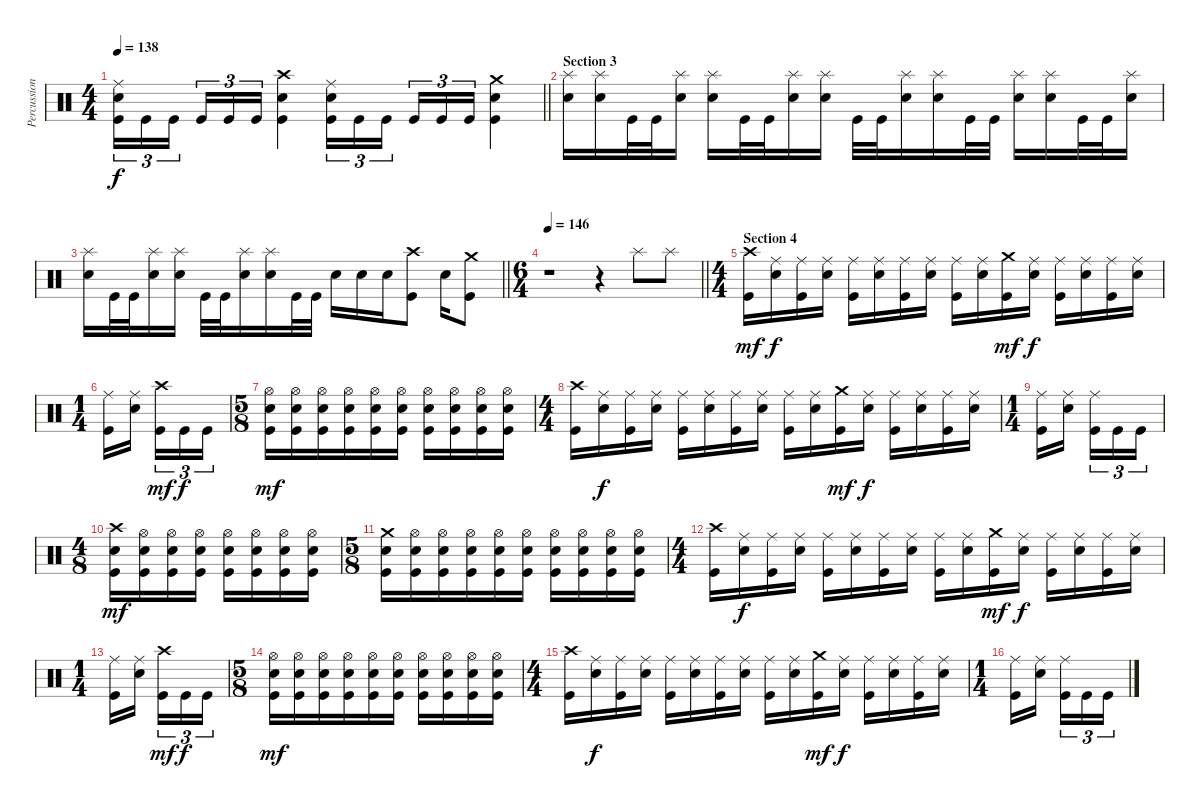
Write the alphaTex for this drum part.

\track ("Percussion" "Percussion") {instrument percussion}
\staff {score}
\articulation defaults
\ts (4 4)
\tempo 138
\clef neutral
\barLineRight lightlight
\ks c
("Ride (middle)" "Electric Snare (hit)" "Kick (hit)").16{tu (3 2) dy f} "Kick (hit)".16{tu (3 2)} "Kick (hit)".16{tu (3 2) beam splitsecondary} "Kick (hit)".16{tu (3 2)} "Kick (hit)".16{tu (3 2)} "Kick (hit)".16{tu (3 2)} ("Crash high (hit)" "Electric Snare (hit)" "Kick (hit)").4 ("Ride (middle)" "Electric Snare (hit)" "Kick (hit)").16{tu (3 2)} "Kick (hit)".16{tu (3 2)} "Kick (hit)".16{tu (3 2) beam splitsecondary} "Kick (hit)".16{tu (3 2)} "Kick (hit)".16{tu (3 2)} "Kick (hit)".16{tu (3 2)} ("Crash medium (hit)" "Electric Snare (hit)" "Kick (hit)").4 |
\section ("" "Section 3")
("Splash (hit)" "Electric Snare (hit)").16 ("Splash (hit)" "Electric Snare (hit)").16 "Kick (hit)".32 "Kick (hit)".32 ("Splash (hit)" "Electric Snare (hit)").16 ("Splash (hit)" "Electric Snare (hit)").16 "Kick (hit)".32 "Kick (hit)".32 ("Splash (hit)" "Electric Snare (hit)").16 ("Splash (hit)" "Electric Snare (hit)").16 "Kick (hit)".32 "Kick (hit)".32 ("Splash (hit)" "Electric Snare (hit)").16 ("Splash (hit)" "Electric Snare (hit)").16 "Kick (hit)".32 "Kick (hit)".32 ("Splash (hit)" "Electric Snare (hit)").16 ("Splash (hit)" "Electric Snare (hit)").16 "Kick (hit)".32 "Kick (hit)".32 ("Splash (hit)" "Electric Snare (hit)").16 |
\barLineRight lightlight
("Splash (hit)" "Electric Snare (hit)").16 "Kick (hit)".32 "Kick (hit)".32 ("Splash (hit)" "Electric Snare (hit)").16 ("Splash (hit)" "Electric Snare (hit)").16 "Kick (hit)".32 "Kick (hit)".32 ("Splash (hit)" "Electric Snare (hit)").16 ("Splash (hit)" "Electric Snare (hit)").16 "Kick (hit)".32 "Kick (hit)".32 "Electric Snare (hit)".16 "Electric Snare (hit)".16 "Electric Snare (hit)".16 ("Crash high (hit)" "Kick (hit)").8 "Electric Snare (hit)".16 ("Crash medium (hit)" "Kick (hit)").8 |
\ts (6 4)
\tempo 146
\barLineRight lightlight
r.1 r.4 "Splash (hit)".8 "Splash (hit)".8 |
\ts (4 4)
\section ("" "Section 4")
("Crash high (hit)" "Kick (hit)").16{dy mf} ("Ride (middle)" "Electric Snare (hit)").16{dy f} ("Ride (middle)" "Kick (hit)").16 ("Ride (middle)" "Electric Snare (hit)").16 ("Ride (middle)" "Kick (hit)").16 ("Ride (middle)" "Electric Snare (hit)").16 ("Ride (middle)" "Kick (hit)").16 ("Ride (middle)" "Electric Snare (hit)").16 ("Ride (middle)" "Kick (hit)").16 ("Ride (middle)" "Electric Snare (hit)").16 ("Crash medium (hit)" "Kick (hit)").16{dy mf} ("Ride (middle)" "Electric Snare (hit)").16{dy f} ("Ride (middle)" "Kick (hit)").16 ("Ride (middle)" "Electric Snare (hit)").16 ("Ride (middle)" "Kick (hit)").16 ("Ride (middle)" "Electric Snare (hit)").16 |
\ts (1 4)
("Ride (middle)" "Kick (hit)").16 ("Ride (middle)" "Electric Snare (hit)").16{beam splitsecondary} ("Crash high (hit)" "Kick (hit)").16{tu (3 2) dy mf} "Kick (hit)".16{tu (3 2) dy f} "Kick (hit)".16{tu (3 2)} |
\ts (5 8)
("Hi-Hat (open)" "Electric Snare (hit)" "Kick (hit)").16{dy mf} ("Hi-Hat (open)" "Electric Snare (hit)" "Kick (hit)").16 ("Hi-Hat (open)" "Electric Snare (hit)" "Kick (hit)").16 ("Hi-Hat (open)" "Electric Snare (hit)" "Kick (hit)").16 ("Hi-Hat (open)" "Electric Snare (hit)" "Kick (hit)").16 ("Hi-Hat (open)" "Electric Snare (hit)" "Kick (hit)").16 ("Hi-Hat (open)" "Electric Snare (hit)" "Kick (hit)").16 ("Hi-Hat (open)" "Electric Snare (hit)" "Kick (hit)").16 ("Hi-Hat (open)" "Electric Snare (hit)" "Kick (hit)").16 ("Hi-Hat (open)" "Electric Snare (hit)" "Kick (hit)").16 |
\ts (4 4)
("Crash high (hit)" "Kick (hit)").16 ("Ride (middle)" "Electric Snare (hit)").16{dy f} ("Ride (middle)" "Kick (hit)").16 ("Ride (middle)" "Electric Snare (hit)").16 ("Ride (middle)" "Kick (hit)").16 ("Ride (middle)" "Electric Snare (hit)").16 ("Ride (middle)" "Kick (hit)").16 ("Ride (middle)" "Electric Snare (hit)").16 ("Ride (middle)" "Kick (hit)").16 ("Ride (middle)" "Electric Snare (hit)").16 ("Crash medium (hit)" "Kick (hit)").16{dy mf} ("Ride (middle)" "Electric Snare (hit)").16{dy f} ("Ride (middle)" "Kick (hit)").16 ("Ride (middle)" "Electric Snare (hit)").16 ("Ride (middle)" "Kick (hit)").16 ("Ride (middle)" "Electric Snare (hit)").16 |
\ts (1 4)
("Ride (middle)" "Kick (hit)").16 ("Ride (middle)" "Electric Snare (hit)").16{beam splitsecondary} ("Ride (middle)" "Kick (hit)").16{tu (3 2)} "Kick (hit)".16{tu (3 2)} "Kick (hit)".16{tu (3 2)} |
\ts (4 8)
("Crash high (hit)" "Electric Snare (hit)" "Kick (hit)").16{dy mf} ("Hi-Hat (open)" "Electric Snare (hit)" "Kick (hit)").16 ("Hi-Hat (open)" "Electric Snare (hit)" "Kick (hit)").16 ("Hi-Hat (open)" "Electric Snare (hit)" "Kick (hit)").16 ("Hi-Hat (open)" "Electric Snare (hit)" "Kick (hit)").16 ("Hi-Hat (open)" "Electric Snare (hit)" "Kick (hit)").16 ("Hi-Hat (open)" "Electric Snare (hit)" "Kick (hit)").16 ("Hi-Hat (open)" "Electric Snare (hit)" "Kick (hit)").16 |
\ts (5 8)
("Crash medium (hit)" "Electric Snare (hit)" "Kick (hit)").16 ("Hi-Hat (open)" "Electric Snare (hit)" "Kick (hit)").16 ("Hi-Hat (open)" "Electric Snare (hit)" "Kick (hit)").16 ("Hi-Hat (open)" "Electric Snare (hit)" "Kick (hit)").16 ("Hi-Hat (open)" "Electric Snare (hit)" "Kick (hit)").16 ("Hi-Hat (open)" "Electric Snare (hit)" "Kick (hit)").16 ("Hi-Hat (open)" "Electric Snare (hit)" "Kick (hit)").16 ("Hi-Hat (open)" "Electric Snare (hit)" "Kick (hit)").16 ("Hi-Hat (open)" "Electric Snare (hit)" "Kick (hit)").16 ("Hi-Hat (open)" "Electric Snare (hit)" "Kick (hit)").16 |
\ts (4 4)
("Crash high (hit)" "Kick (hit)").16 ("Ride (middle)" "Electric Snare (hit)").16{dy f} ("Ride (middle)" "Kick (hit)").16 ("Ride (middle)" "Electric Snare (hit)").16 ("Ride (middle)" "Kick (hit)").16 ("Ride (middle)" "Electric Snare (hit)").16 ("Ride (middle)" "Kick (hit)").16 ("Ride (middle)" "Electric Snare (hit)").16 ("Ride (middle)" "Kick (hit)").16 ("Ride (middle)" "Electric Snare (hit)").16 ("Crash medium (hit)" "Kick (hit)").16{dy mf} ("Ride (middle)" "Electric Snare (hit)").16{dy f} ("Ride (middle)" "Kick (hit)").16 ("Ride (middle)" "Electric Snare (hit)").16 ("Ride (middle)" "Kick (hit)").16 ("Ride (middle)" "Electric Snare (hit)").16 |
\ts (1 4)
("Ride (middle)" "Kick (hit)").16 ("Ride (middle)" "Electric Snare (hit)").16{beam splitsecondary} ("Crash high (hit)" "Kick (hit)").16{tu (3 2) dy mf} "Kick (hit)".16{tu (3 2) dy f} "Kick (hit)".16{tu (3 2)} |
\ts (5 8)
("Hi-Hat (open)" "Electric Snare (hit)" "Kick (hit)").16{dy mf} ("Hi-Hat (open)" "Electric Snare (hit)" "Kick (hit)").16 ("Hi-Hat (open)" "Electric Snare (hit)" "Kick (hit)").16 ("Hi-Hat (open)" "Electric Snare (hit)" "Kick (hit)").16 ("Hi-Hat (open)" "Electric Snare (hit)" "Kick (hit)").16 ("Hi-Hat (open)" "Electric Snare (hit)" "Kick (hit)").16 ("Hi-Hat (open)" "Electric Snare (hit)" "Kick (hit)").16 ("Hi-Hat (open)" "Electric Snare (hit)" "Kick (hit)").16 ("Hi-Hat (open)" "Electric Snare (hit)" "Kick (hit)").16 ("Hi-Hat (open)" "Electric Snare (hit)" "Kick (hit)").16 |
\ts (4 4)
("Crash high (hit)" "Kick (hit)").16 ("Ride (middle)" "Electric Snare (hit)").16{dy f} ("Ride (middle)" "Kick (hit)").16 ("Ride (middle)" "Electric Snare (hit)").16 ("Ride (middle)" "Kick (hit)").16 ("Ride (middle)" "Electric Snare (hit)").16 ("Ride (middle)" "Kick (hit)").16 ("Ride (middle)" "Electric Snare (hit)").16 ("Ride (middle)" "Kick (hit)").16 ("Ride (middle)" "Electric Snare (hit)").16 ("Crash medium (hit)" "Kick (hit)").16{dy mf} ("Ride (middle)" "Electric Snare (hit)").16{dy f} ("Ride (middle)" "Kick (hit)").16 ("Ride (middle)" "Electric Snare (hit)").16 ("Ride (middle)" "Kick (hit)").16 ("Ride (middle)" "Electric Snare (hit)").16 |
\ts (1 4)
("Ride (middle)" "Kick (hit)").16 ("Ride (middle)" "Electric Snare (hit)").16{beam splitsecondary} ("Ride (middle)" "Kick (hit)").16{tu (3 2)} "Kick (hit)".16{tu (3 2)} "Kick (hit)".16{tu (3 2)}
